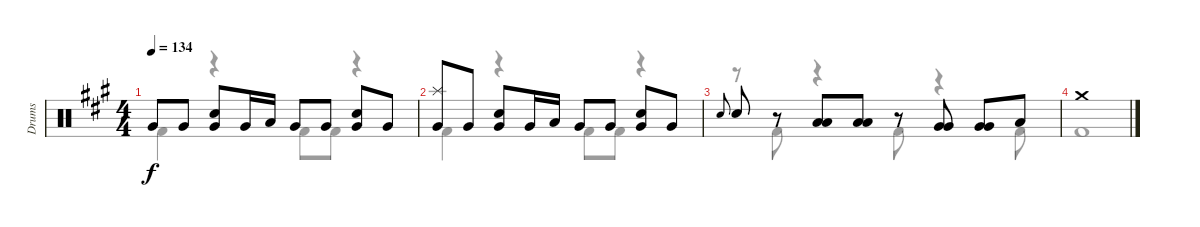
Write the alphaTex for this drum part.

\track ("Drums" "Drums") {instrument percussion}
\staff {score}
\articulation defaults
\voice
\ts (4 4)
\tempo 134
\clef neutral
\ks a "Very Low Tom (hit)".8{dy f} "Very Low Tom (hit)".8
("Very Low Tom (hit)" "Snare (hit) 2").8 "Very Low Tom (hit)".16 "Low Tom (hit)".16 "Very Low Tom (hit)".8 "Very Low Tom (hit)".8 ("Very Low Tom (hit)" "Snare (hit) 2").8 "Very Low Tom (hit)".8 |
("Splash (hit)" "Very Low Tom (hit)").8 "Very Low Tom (hit)".8 ("Very Low Tom (hit)" "Snare (hit) 2").8 "Very Low Tom (hit)".16 "Low Tom (hit)".16 "Very Low Tom (hit)".8 "Very Low Tom (hit)".8 ("Very Low Tom (hit)" "Snare (hit) 2").8 "Very Low Tom (hit)".8 |
"Snare (hit) 2".8{gr onbeat} "Snare (hit) 2".8 r.8 ("Low Tom (hit)" "Low Tom (hit)").8 ("Low Tom (hit)" "Low Tom (hit)").8 r.8 ("Very Low Tom (hit)" "Very Low Tom (hit)").8 ("Very Low Tom (hit)" "Very Low Tom (hit)").8 "Low Floor Tom (hit)".8 |
"Crash medium (hit)".1 |
|
\voice
\clef neutral
\ottava regular
\simile none
\ks a "Kick (hit) 2".4{dy f}
r.4 "Kick (hit) 2".8 "Kick (hit) 2".8 r.4 |
"Kick (hit) 2".4 r.4 "Kick (hit) 2".8 "Kick (hit) 2".8 r.4 |
r.8 "Kick (hit) 2".8 r.4 "Kick (hit) 2".8 r.4 "Kick (hit) 2".8 |
"Kick (hit) 2".1 |
|
